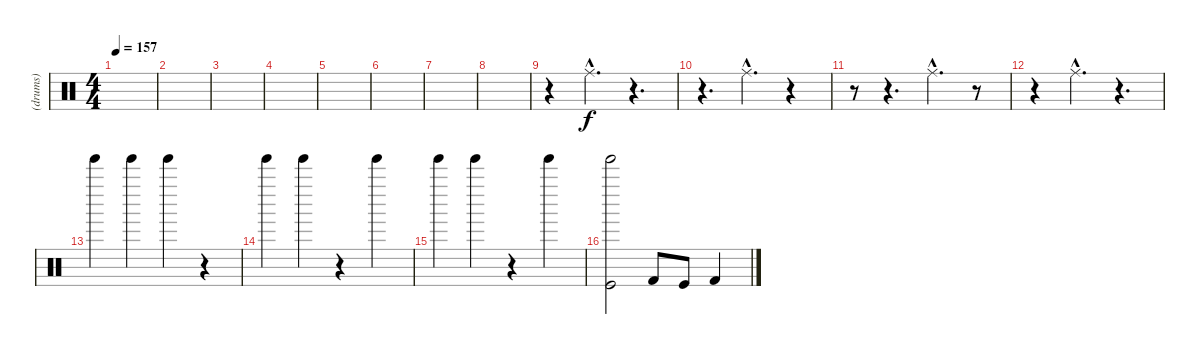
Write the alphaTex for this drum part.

\track ("(drums)" "(drums)") {instrument percussion}
\staff {score}
\articulation defaults
\ts (4 4)
\tempo 157
\clef neutral
\ks c
|
|
|
|
|
|
|
|
r.4 "Ride (middle)"{hac}.4{d} r.4{d} |
r.4{d} "Ride (middle)"{hac}.4{d} r.4 |
r.8 r.4{d} "Ride (middle)"{hac}.4{d} r.8 |
r.4 "Ride (middle)"{hac}.4{d} r.4{d} |
"Tinkle Bell (hit)".4 "Tinkle Bell (hit)".4 "Tinkle Bell (hit)".4 r.4 |
"Tinkle Bell (hit)".4 "Tinkle Bell (hit)".4 r.4 "Tinkle Bell (hit)".4 |
"Tinkle Bell (hit)".4 "Tinkle Bell (hit)".4 r.4 "Tinkle Bell (hit)".4 |
("Kick (hit)" "Tinkle Bell (hit)").2{volume 14} "Kick (hit) 2".8 "Kick (hit)".8 "Kick (hit) 2".4
